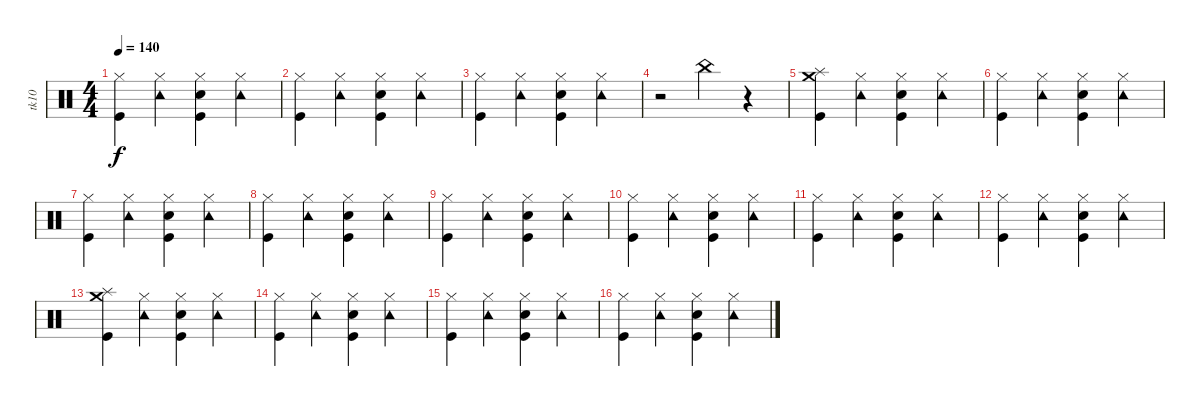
\track ("tk10" "tk10") {instrument percussion}
\staff {score}
\articulation defaults
\ts (4 4)
\tempo 140
\clef neutral
\ks c
("Hi-Hat (closed)" "Kick (hit)").4{dy f} ("Tambourine (hit)" "Hi-Hat (closed)").4 ("Electric Snare (hit)" "Hi-Hat (closed)" "Kick (hit)").4 ("Hi-Hat (closed)" "Tambourine (hit)").4 |
("Hi-Hat (closed)" "Kick (hit)").4 ("Tambourine (hit)" "Hi-Hat (closed)").4 ("Electric Snare (hit)" "Hi-Hat (closed)" "Kick (hit)").4 ("Hi-Hat (closed)" "Tambourine (hit)").4 |
("Hi-Hat (closed)" "Kick (hit)").4 ("Tambourine (hit)" "Hi-Hat (closed)").4 ("Electric Snare (hit)" "Hi-Hat (closed)" "Kick (hit)").4 ("Hi-Hat (closed)" "Tambourine (hit)").4 |
r.2 "China (hit)".4 r.4 |
("Splash (hit)" "Kick (hit)" "Crash medium (hit)").4 ("Hi-Hat (closed)" "Tambourine (hit)").4 ("Electric Snare (hit)" "Hi-Hat (closed)" "Kick (hit)").4 ("Hi-Hat (closed)" "Tambourine (hit)").4 |
("Hi-Hat (closed)" "Kick (hit)").4 ("Tambourine (hit)" "Hi-Hat (closed)").4 ("Electric Snare (hit)" "Hi-Hat (closed)" "Kick (hit)").4 ("Hi-Hat (closed)" "Tambourine (hit)").4 |
("Hi-Hat (closed)" "Kick (hit)").4 ("Tambourine (hit)" "Hi-Hat (closed)").4 ("Electric Snare (hit)" "Hi-Hat (closed)" "Kick (hit)").4 ("Hi-Hat (closed)" "Tambourine (hit)").4 |
("Hi-Hat (closed)" "Kick (hit)").4 ("Tambourine (hit)" "Hi-Hat (closed)").4 ("Electric Snare (hit)" "Hi-Hat (closed)" "Kick (hit)").4 ("Hi-Hat (closed)" "Tambourine (hit)").4 |
("Hi-Hat (closed)" "Kick (hit)").4 ("Tambourine (hit)" "Hi-Hat (closed)").4 ("Electric Snare (hit)" "Hi-Hat (closed)" "Kick (hit)").4 ("Hi-Hat (closed)" "Tambourine (hit)").4 |
("Hi-Hat (closed)" "Kick (hit)").4 ("Tambourine (hit)" "Hi-Hat (closed)").4 ("Electric Snare (hit)" "Hi-Hat (closed)" "Kick (hit)").4 ("Hi-Hat (closed)" "Tambourine (hit)").4 |
("Hi-Hat (closed)" "Kick (hit)").4 ("Tambourine (hit)" "Hi-Hat (closed)").4 ("Electric Snare (hit)" "Hi-Hat (closed)" "Kick (hit)").4 ("Hi-Hat (closed)" "Tambourine (hit)").4 |
("Hi-Hat (closed)" "Kick (hit)").4 ("Tambourine (hit)" "Hi-Hat (closed)").4 ("Electric Snare (hit)" "Hi-Hat (closed)" "Kick (hit)").4 ("Hi-Hat (closed)" "Tambourine (hit)").4 |
("Splash (hit)" "Kick (hit)" "Crash medium (hit)").4 ("Hi-Hat (closed)" "Tambourine (hit)").4 ("Electric Snare (hit)" "Hi-Hat (closed)" "Kick (hit)").4 ("Hi-Hat (closed)" "Tambourine (hit)").4 |
("Hi-Hat (closed)" "Kick (hit)").4 ("Tambourine (hit)" "Hi-Hat (closed)").4 ("Electric Snare (hit)" "Hi-Hat (closed)" "Kick (hit)").4 ("Hi-Hat (closed)" "Tambourine (hit)").4 |
("Hi-Hat (closed)" "Kick (hit)").4 ("Tambourine (hit)" "Hi-Hat (closed)").4 ("Electric Snare (hit)" "Hi-Hat (closed)" "Kick (hit)").4 ("Hi-Hat (closed)" "Tambourine (hit)").4 |
("Hi-Hat (closed)" "Kick (hit)").4 ("Tambourine (hit)" "Hi-Hat (closed)").4 ("Electric Snare (hit)" "Hi-Hat (closed)" "Kick (hit)").4 ("Hi-Hat (closed)" "Tambourine (hit)").4
